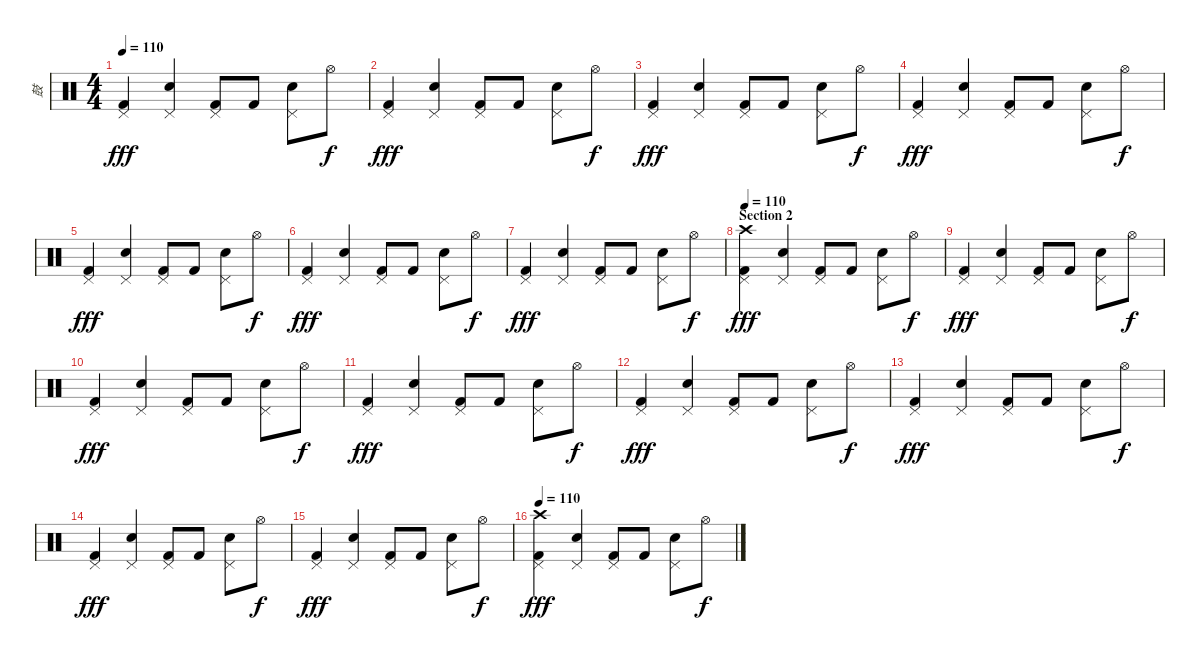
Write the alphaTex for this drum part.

\track ("鼓" "鼓") {instrument percussion}
\staff {score}
\articulation defaults
\ts (4 4)
\tempo 110
\clef neutral
\ks c
("Pedal Hi-Hat (hit)" "Kick (hit) 2").4{dy fff} ("Pedal Hi-Hat (hit)" "Electric Snare (hit)").4 ("Pedal Hi-Hat (hit)" "Kick (hit) 2").8 "Kick (hit) 2".8 ("Pedal Hi-Hat (hit)" "Electric Snare (hit)").8 "Hi-Hat (open)".8{dy f} |
("Pedal Hi-Hat (hit)" "Kick (hit) 2").4{dy fff} ("Pedal Hi-Hat (hit)" "Electric Snare (hit)").4 ("Pedal Hi-Hat (hit)" "Kick (hit) 2").8 "Kick (hit) 2".8 ("Pedal Hi-Hat (hit)" "Electric Snare (hit)").8 "Hi-Hat (open)".8{dy f} |
("Pedal Hi-Hat (hit)" "Kick (hit) 2").4{dy fff} ("Pedal Hi-Hat (hit)" "Electric Snare (hit)").4 ("Pedal Hi-Hat (hit)" "Kick (hit) 2").8 "Kick (hit) 2".8 ("Pedal Hi-Hat (hit)" "Electric Snare (hit)").8 "Hi-Hat (open)".8{dy f} |
("Pedal Hi-Hat (hit)" "Kick (hit) 2").4{dy fff} ("Pedal Hi-Hat (hit)" "Electric Snare (hit)").4 ("Pedal Hi-Hat (hit)" "Kick (hit) 2").8 "Kick (hit) 2".8 ("Pedal Hi-Hat (hit)" "Electric Snare (hit)").8 "Hi-Hat (open)".8{dy f} |
("Pedal Hi-Hat (hit)" "Kick (hit) 2").4{dy fff} ("Pedal Hi-Hat (hit)" "Electric Snare (hit)").4 ("Pedal Hi-Hat (hit)" "Kick (hit) 2").8 "Kick (hit) 2".8 ("Pedal Hi-Hat (hit)" "Electric Snare (hit)").8 "Hi-Hat (open)".8{dy f} |
("Pedal Hi-Hat (hit)" "Kick (hit) 2").4{dy fff} ("Pedal Hi-Hat (hit)" "Electric Snare (hit)").4 ("Pedal Hi-Hat (hit)" "Kick (hit) 2").8 "Kick (hit) 2".8 ("Pedal Hi-Hat (hit)" "Electric Snare (hit)").8 "Hi-Hat (open)".8{dy f} |
("Pedal Hi-Hat (hit)" "Kick (hit) 2").4{dy fff} ("Pedal Hi-Hat (hit)" "Electric Snare (hit)").4 ("Pedal Hi-Hat (hit)" "Kick (hit) 2").8 "Kick (hit) 2".8 ("Pedal Hi-Hat (hit)" "Electric Snare (hit)").8 "Hi-Hat (open)".8{dy f} |
\section ("" "Section 2")
\tempo 110
("Pedal Hi-Hat (hit)" "Crash high (hit)" "Kick (hit) 2").4{dy fff} ("Pedal Hi-Hat (hit)" "Electric Snare (hit)").4 ("Pedal Hi-Hat (hit)" "Kick (hit) 2").8 "Kick (hit) 2".8 ("Pedal Hi-Hat (hit)" "Electric Snare (hit)").8 "Hi-Hat (open)".8{dy f} |
("Pedal Hi-Hat (hit)" "Kick (hit) 2").4{dy fff} ("Pedal Hi-Hat (hit)" "Electric Snare (hit)").4 ("Pedal Hi-Hat (hit)" "Kick (hit) 2").8 "Kick (hit) 2".8 ("Pedal Hi-Hat (hit)" "Electric Snare (hit)").8 "Hi-Hat (open)".8{dy f} |
("Pedal Hi-Hat (hit)" "Kick (hit) 2").4{dy fff} ("Pedal Hi-Hat (hit)" "Electric Snare (hit)").4 ("Pedal Hi-Hat (hit)" "Kick (hit) 2").8 "Kick (hit) 2".8 ("Pedal Hi-Hat (hit)" "Electric Snare (hit)").8 "Hi-Hat (open)".8{dy f} |
("Pedal Hi-Hat (hit)" "Kick (hit) 2").4{dy fff} ("Pedal Hi-Hat (hit)" "Electric Snare (hit)").4 ("Pedal Hi-Hat (hit)" "Kick (hit) 2").8 "Kick (hit) 2".8 ("Pedal Hi-Hat (hit)" "Electric Snare (hit)").8 "Hi-Hat (open)".8{dy f} |
("Pedal Hi-Hat (hit)" "Kick (hit) 2").4{dy fff} ("Pedal Hi-Hat (hit)" "Electric Snare (hit)").4 ("Pedal Hi-Hat (hit)" "Kick (hit) 2").8 "Kick (hit) 2".8 ("Pedal Hi-Hat (hit)" "Electric Snare (hit)").8 "Hi-Hat (open)".8{dy f} |
("Pedal Hi-Hat (hit)" "Kick (hit) 2").4{dy fff} ("Pedal Hi-Hat (hit)" "Electric Snare (hit)").4 ("Pedal Hi-Hat (hit)" "Kick (hit) 2").8 "Kick (hit) 2".8 ("Pedal Hi-Hat (hit)" "Electric Snare (hit)").8 "Hi-Hat (open)".8{dy f} |
("Pedal Hi-Hat (hit)" "Kick (hit) 2").4{dy fff} ("Pedal Hi-Hat (hit)" "Electric Snare (hit)").4 ("Pedal Hi-Hat (hit)" "Kick (hit) 2").8 "Kick (hit) 2".8 ("Pedal Hi-Hat (hit)" "Electric Snare (hit)").8 "Hi-Hat (open)".8{dy f} |
("Pedal Hi-Hat (hit)" "Kick (hit) 2").4{dy fff} ("Pedal Hi-Hat (hit)" "Electric Snare (hit)").4 ("Pedal Hi-Hat (hit)" "Kick (hit) 2").8 "Kick (hit) 2".8 ("Pedal Hi-Hat (hit)" "Electric Snare (hit)").8 "Hi-Hat (open)".8{dy f} |
\tempo 110
("Pedal Hi-Hat (hit)" "Crash high (hit)" "Kick (hit) 2").4{dy fff} ("Pedal Hi-Hat (hit)" "Electric Snare (hit)").4 ("Pedal Hi-Hat (hit)" "Kick (hit) 2").8 "Kick (hit) 2".8 ("Pedal Hi-Hat (hit)" "Electric Snare (hit)").8 "Hi-Hat (open)".8{dy f}
